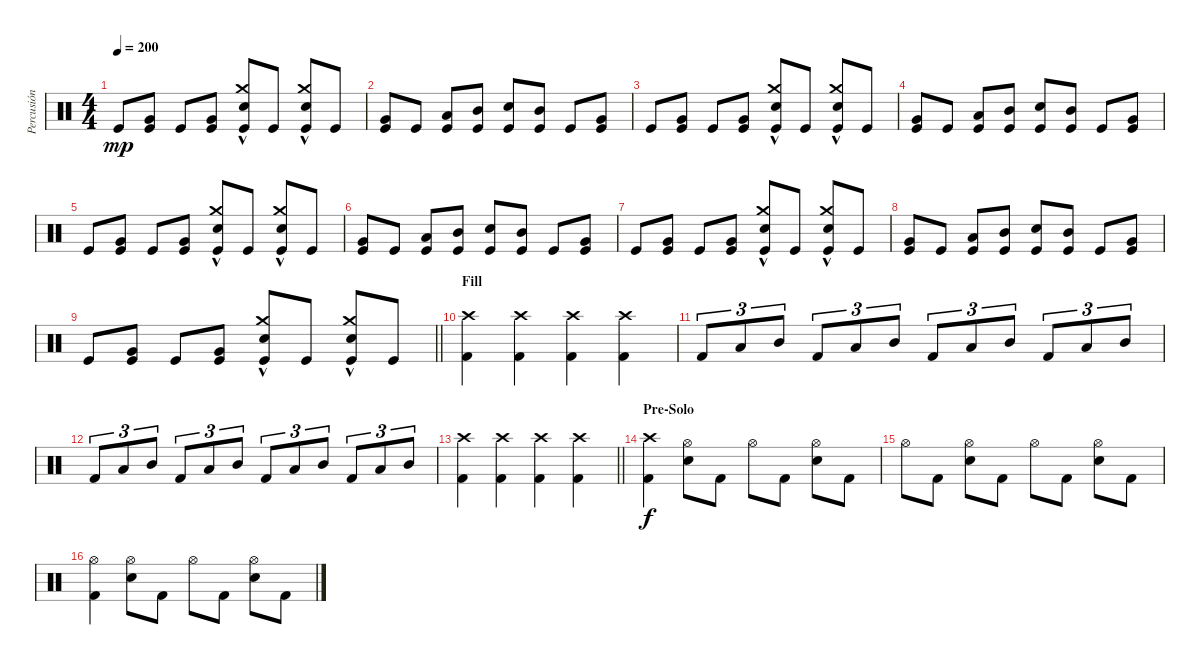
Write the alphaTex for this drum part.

\track ("Percusión" "Percusión") {instrument percussion}
\staff {score}
\articulation defaults
\ts (4 4)
\tempo 200
\clef neutral
\ks c "Kick (hit)".8{dy mp}
("Very Low Tom (hit)" "Kick (hit)").8 "Kick (hit)".8 ("Very Low Tom (hit)" "Kick (hit)").8 ("Crash medium (hit)"{hac} "Electric Snare (hit)"{hac} "Kick (hit)").8 "Kick (hit)".8 ("Crash medium (hit)"{hac} "Electric Snare (hit)"{hac} "Kick (hit)").8 "Kick (hit)".8 |
("Very Low Tom (hit)" "Kick (hit)").8 "Kick (hit)".8 ("Low Tom (hit)" "Kick (hit)").8 ("Mid Tom (hit)" "Kick (hit)").8 ("Electric Snare (hit)" "Kick (hit)").8 ("Mid Tom (hit)" "Kick (hit)").8 "Kick (hit)".8 ("Very Low Tom (hit)" "Kick (hit)").8 |
"Kick (hit)".8 ("Very Low Tom (hit)" "Kick (hit)").8 "Kick (hit)".8 ("Very Low Tom (hit)" "Kick (hit)").8 ("Crash medium (hit)"{hac} "Electric Snare (hit)"{hac} "Kick (hit)").8 "Kick (hit)".8 ("Crash medium (hit)"{hac} "Electric Snare (hit)"{hac} "Kick (hit)").8 "Kick (hit)".8 |
("Very Low Tom (hit)" "Kick (hit)").8 "Kick (hit)".8 ("Low Tom (hit)" "Kick (hit)").8 ("Mid Tom (hit)" "Kick (hit)").8 ("Electric Snare (hit)" "Kick (hit)").8 ("Mid Tom (hit)" "Kick (hit)").8 "Kick (hit)".8 ("Very Low Tom (hit)" "Kick (hit)").8 |
"Kick (hit)".8 ("Very Low Tom (hit)" "Kick (hit)").8 "Kick (hit)".8 ("Very Low Tom (hit)" "Kick (hit)").8 ("Crash medium (hit)"{hac} "Electric Snare (hit)"{hac} "Kick (hit)").8 "Kick (hit)".8 ("Crash medium (hit)"{hac} "Electric Snare (hit)"{hac} "Kick (hit)").8 "Kick (hit)".8 |
("Very Low Tom (hit)" "Kick (hit)").8 "Kick (hit)".8 ("Low Tom (hit)" "Kick (hit)").8 ("Mid Tom (hit)" "Kick (hit)").8 ("Electric Snare (hit)" "Kick (hit)").8 ("Mid Tom (hit)" "Kick (hit)").8 "Kick (hit)".8 ("Very Low Tom (hit)" "Kick (hit)").8 |
"Kick (hit)".8 ("Very Low Tom (hit)" "Kick (hit)").8 "Kick (hit)".8 ("Very Low Tom (hit)" "Kick (hit)").8 ("Crash medium (hit)"{hac} "Electric Snare (hit)"{hac} "Kick (hit)").8 "Kick (hit)".8 ("Crash medium (hit)"{hac} "Electric Snare (hit)"{hac} "Kick (hit)").8 "Kick (hit)".8 |
("Very Low Tom (hit)" "Kick (hit)").8 "Kick (hit)".8 ("Low Tom (hit)" "Kick (hit)").8 ("Mid Tom (hit)" "Kick (hit)").8 ("Electric Snare (hit)" "Kick (hit)").8 ("Mid Tom (hit)" "Kick (hit)").8 "Kick (hit)".8 ("Very Low Tom (hit)" "Kick (hit)").8 |
\barLineRight lightlight "Kick (hit)".8
("Very Low Tom (hit)" "Kick (hit)").8 "Kick (hit)".8 ("Very Low Tom (hit)" "Kick (hit)").8 ("Crash medium (hit)"{hac} "Electric Snare (hit)"{hac} "Kick (hit)").8 "Kick (hit)".8 ("Crash medium (hit)"{hac} "Electric Snare (hit)"{hac} "Kick (hit)").8 "Kick (hit)".8 |
\section ("" "Fill")
("Crash high (hit)" "Kick (hit) 2").4 ("Crash high (hit)" "Kick (hit) 2").4 ("Crash high (hit)" "Kick (hit) 2").4 ("Crash high (hit)" "Kick (hit) 2").4 |
"Kick (hit) 2".8{tu (3 2)} "Low Tom (hit)".8{tu (3 2)} "Mid Tom (hit)".8{tu (3 2)} "Kick (hit) 2".8{tu (3 2)} "Low Tom (hit)".8{tu (3 2)} "Mid Tom (hit)".8{tu (3 2)} "Kick (hit) 2".8{tu (3 2)} "Low Tom (hit)".8{tu (3 2)} "Mid Tom (hit)".8{tu (3 2)} "Kick (hit) 2".8{tu (3 2)} "Low Tom (hit)".8{tu (3 2)} "Mid Tom (hit)".8{tu (3 2)} |
"Kick (hit) 2".8{tu (3 2)} "Low Tom (hit)".8{tu (3 2)} "Mid Tom (hit)".8{tu (3 2)} "Kick (hit) 2".8{tu (3 2)} "Low Tom (hit)".8{tu (3 2)} "Mid Tom (hit)".8{tu (3 2)} "Kick (hit) 2".8{tu (3 2)} "Low Tom (hit)".8{tu (3 2)} "Mid Tom (hit)".8{tu (3 2)} "Kick (hit) 2".8{tu (3 2)} "Low Tom (hit)".8{tu (3 2)} "Mid Tom (hit)".8{tu (3 2)} |
\barLineRight lightlight
("Crash high (hit)" "Kick (hit) 2").4 ("Crash high (hit)" "Kick (hit) 2").4 ("Crash high (hit)" "Kick (hit) 2").4 ("Crash high (hit)" "Kick (hit) 2").4 |
\section ("" "Pre-Solo")
("Crash high (hit)" "Kick (hit) 2").4{dy f} ("Hi-Hat (open)" "Electric Snare (hit)").8 "Kick (hit) 2".8 "Hi-Hat (open)".8 "Kick (hit) 2".8 ("Hi-Hat (open)" "Electric Snare (hit)").8 "Kick (hit) 2".8 |
"Hi-Hat (open)".8 "Kick (hit) 2".8 ("Hi-Hat (open)" "Electric Snare (hit)").8 "Kick (hit) 2".8 "Hi-Hat (open)".8 "Kick (hit) 2".8 ("Hi-Hat (open)" "Electric Snare (hit)").8 "Kick (hit) 2".8 |
("Hi-Hat (open)" "Kick (hit) 2").4 ("Hi-Hat (open)" "Electric Snare (hit)").8 "Kick (hit) 2".8 "Hi-Hat (open)".8 "Kick (hit) 2".8 ("Hi-Hat (open)" "Electric Snare (hit)").8 "Kick (hit) 2".8
